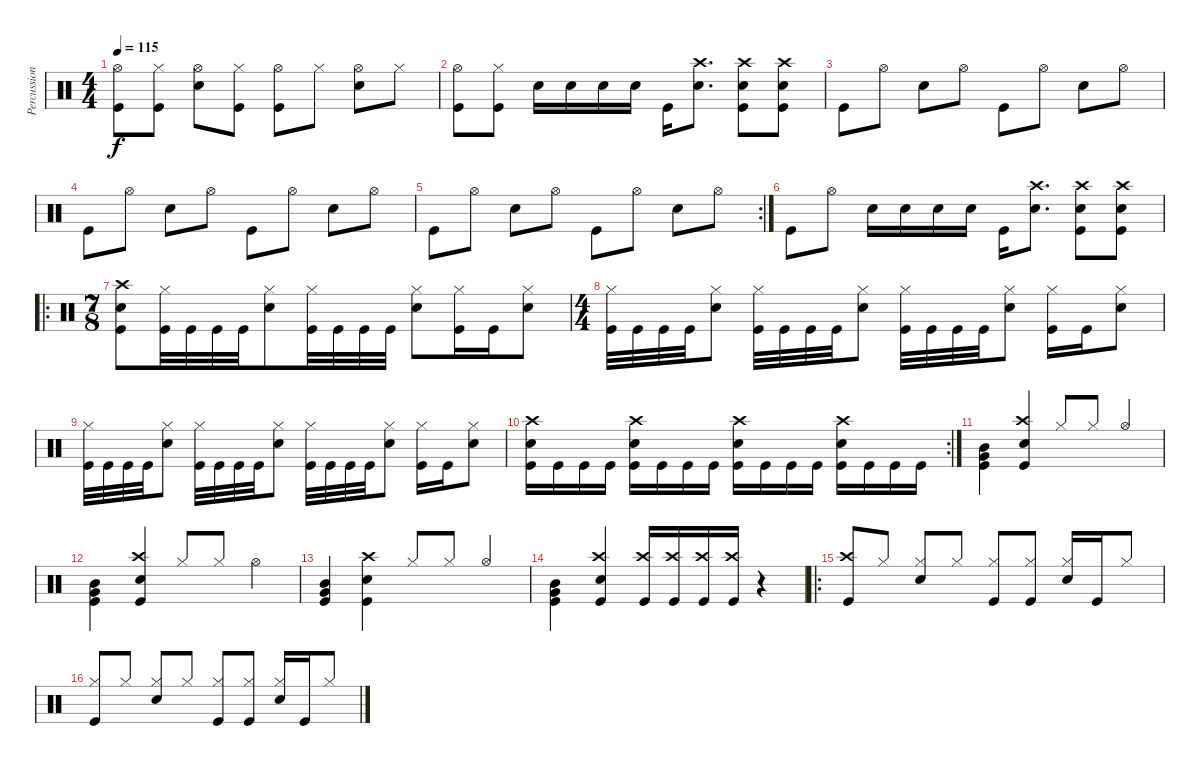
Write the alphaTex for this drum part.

\track ("Percussion" "Percussion") {instrument percussion}
\staff {score}
\articulation defaults
\ts (4 4)
\tempo 115
\clef neutral
\ks c
("Hi-Hat (open)" "Kick (hit)").8{dy f} ("Hi-Hat (closed)" "Kick (hit)").8 ("Hi-Hat (open)" "Snare (hit) 2").8 ("Hi-Hat (closed)" "Kick (hit)").8 ("Hi-Hat (open)" "Kick (hit)").8 "Hi-Hat (closed)".8 ("Hi-Hat (open)" "Snare (hit) 2").8 "Hi-Hat (closed)".8 |
("Hi-Hat (open)" "Kick (hit)").8 ("Hi-Hat (closed)" "Kick (hit)").8 "Snare (hit) 2".16 "Snare (hit) 2".16 "Snare (hit) 2".16 "Snare (hit) 2".16 "Kick (hit)".16 ("Snare (hit) 2" "Crash high (hit)").8{d} ("Crash high (hit)" "Kick (hit)" "Snare (hit) 2").8 ("Crash high (hit)" "Kick (hit)" "Snare (hit) 2").8 |
"Kick (hit)".8 "Hi-Hat (open)".8 "Snare (hit) 2".8 "Hi-Hat (open)".8 "Kick (hit)".8 "Hi-Hat (open)".8 "Snare (hit) 2".8 "Hi-Hat (open)".8 |
"Kick (hit)".8 "Hi-Hat (open)".8 "Snare (hit) 2".8 "Hi-Hat (open)".8 "Kick (hit)".8 "Hi-Hat (open)".8 "Snare (hit) 2".8 "Hi-Hat (open)".8 |
\rc 2 "Kick (hit)".8 "Hi-Hat (open)".8 "Snare (hit) 2".8 "Hi-Hat (open)".8 "Kick (hit)".8 "Hi-Hat (open)".8 "Snare (hit) 2".8 "Hi-Hat (open)".8
|
"Kick (hit)".8 "Hi-Hat (open)".8 "Snare (hit) 2".16 "Snare (hit) 2".16 "Snare (hit) 2".16 "Snare (hit) 2".16 "Kick (hit)".16 ("Snare (hit) 2" "Crash high (hit)").8{d} ("Crash high (hit)" "Kick (hit)" "Snare (hit) 2").8 ("Crash high (hit)" "Kick (hit)" "Snare (hit) 2").8 |
\ro
\ts (7 8)
("Crash high (hit)" "Snare (hit) 2" "Kick (hit)").8 ("Hi-Hat (closed)" "Kick (hit)").32 "Kick (hit)".32 "Kick (hit)".32 "Kick (hit)".32 ("Hi-Hat (closed)" "Snare (hit) 2").8 ("Hi-Hat (closed)" "Kick (hit)").32 "Kick (hit)".32 "Kick (hit)".32 "Kick (hit)".32 ("Hi-Hat (closed)" "Snare (hit) 2").8 ("Hi-Hat (closed)" "Kick (hit)").16 "Kick (hit)".16 ("Hi-Hat (closed)" "Snare (hit) 2").8 |
\ts (4 4)
("Hi-Hat (closed)" "Kick (hit)").32 "Kick (hit)".32 "Kick (hit)".32 "Kick (hit)".32 ("Hi-Hat (closed)" "Snare (hit) 2").8 ("Hi-Hat (closed)" "Kick (hit)").32 "Kick (hit)".32 "Kick (hit)".32 "Kick (hit)".32 ("Hi-Hat (closed)" "Snare (hit) 2").8 ("Hi-Hat (closed)" "Kick (hit)").32 "Kick (hit)".32 "Kick (hit)".32 "Kick (hit)".32 ("Hi-Hat (closed)" "Snare (hit) 2").8 ("Hi-Hat (closed)" "Kick (hit)").16 "Kick (hit)".16 ("Hi-Hat (closed)" "Snare (hit) 2").8 |
("Hi-Hat (closed)" "Kick (hit)").32 "Kick (hit)".32 "Kick (hit)".32 "Kick (hit)".32 ("Hi-Hat (closed)" "Snare (hit) 2").8 ("Hi-Hat (closed)" "Kick (hit)").32 "Kick (hit)".32 "Kick (hit)".32 "Kick (hit)".32 ("Hi-Hat (closed)" "Snare (hit) 2").8 ("Hi-Hat (closed)" "Kick (hit)").32 "Kick (hit)".32 "Kick (hit)".32 "Kick (hit)".32 ("Hi-Hat (closed)" "Snare (hit) 2").8 ("Hi-Hat (closed)" "Kick (hit)").16 "Kick (hit)".16 ("Hi-Hat (closed)" "Snare (hit) 2").8 |
\rc 2
("Kick (hit)" "Crash high (hit)" "Snare (hit) 2").16 "Kick (hit)".16 "Kick (hit)".16 "Kick (hit)".16 ("Kick (hit)" "Crash high (hit)" "Snare (hit) 2").16 "Kick (hit)".16 "Kick (hit)".16 "Kick (hit)".16 ("Crash high (hit)" "Kick (hit)" "Snare (hit) 2").16 "Kick (hit)".16 "Kick (hit)".16 "Kick (hit)".16 ("Kick (hit)" "Crash high (hit)" "Snare (hit) 2").16 "Kick (hit)".16 "Kick (hit)".16 "Kick (hit)".16 |
("Very Low Tom (hit)" "Mid Tom (hit)" "Kick (hit)").4{beam Down} ("Crash high (hit)" "Snare (hit) 2" "Kick (hit)").4{beam Up} "Hi-Hat (closed)".8{beam Up} "Hi-Hat (closed)".8{beam Up} "Hi-Hat (open)".4{beam Up} |
("Very Low Tom (hit)" "Mid Tom (hit)" "Kick (hit)").4{beam Down} ("Crash high (hit)" "Snare (hit) 2" "Kick (hit)").4{beam Up} "Hi-Hat (closed)".8{beam Up} "Hi-Hat (closed)".8{beam Up} "Hi-Hat (open)".4 |
("Kick (hit)" "Mid Tom (hit)" "Very Low Tom (hit)").4 ("Crash high (hit)" "Snare (hit) 2" "Kick (hit)").4 "Hi-Hat (closed)".8{beam Up} "Hi-Hat (closed)".8{beam Up} "Hi-Hat (open)".4{beam Up} |
("Very Low Tom (hit)" "Mid Tom (hit)" "Kick (hit)").4{beam Down} ("Crash high (hit)" "Snare (hit) 2" "Kick (hit)").4{beam Up} ("Crash high (hit)" "Kick (hit)").16{beam Up} ("Crash high (hit)" "Kick (hit)").16{beam Up} ("Crash high (hit)" "Kick (hit)").16{beam Up} ("Crash high (hit)" "Kick (hit)").16{beam Up} r.4 |
\ro
("Crash high (hit)" "Kick (hit)").8{beam Up} "Hi-Hat (closed)".8{beam Up} ("Hi-Hat (closed)" "Snare (hit) 2").8{beam Up} "Hi-Hat (closed)".8{beam Up} ("Hi-Hat (closed)" "Kick (hit)").8{beam Up} ("Hi-Hat (closed)" "Kick (hit)").8{beam Up} ("Hi-Hat (closed)" "Snare (hit) 2").16{beam Up} "Kick (hit)".16{beam Up} "Hi-Hat (closed)".8{beam Up} |
("Hi-Hat (closed)" "Kick (hit)").8{beam Up} "Hi-Hat (closed)".8{beam Up} ("Hi-Hat (closed)" "Snare (hit) 2").8{beam Up} "Hi-Hat (closed)".8{beam Up} ("Hi-Hat (closed)" "Kick (hit)").8{beam Up} ("Hi-Hat (closed)" "Kick (hit)").8{beam Up} ("Hi-Hat (closed)" "Snare (hit) 2").16{beam Up} "Kick (hit)".16{beam Up} "Hi-Hat (closed)".8{beam Up}
